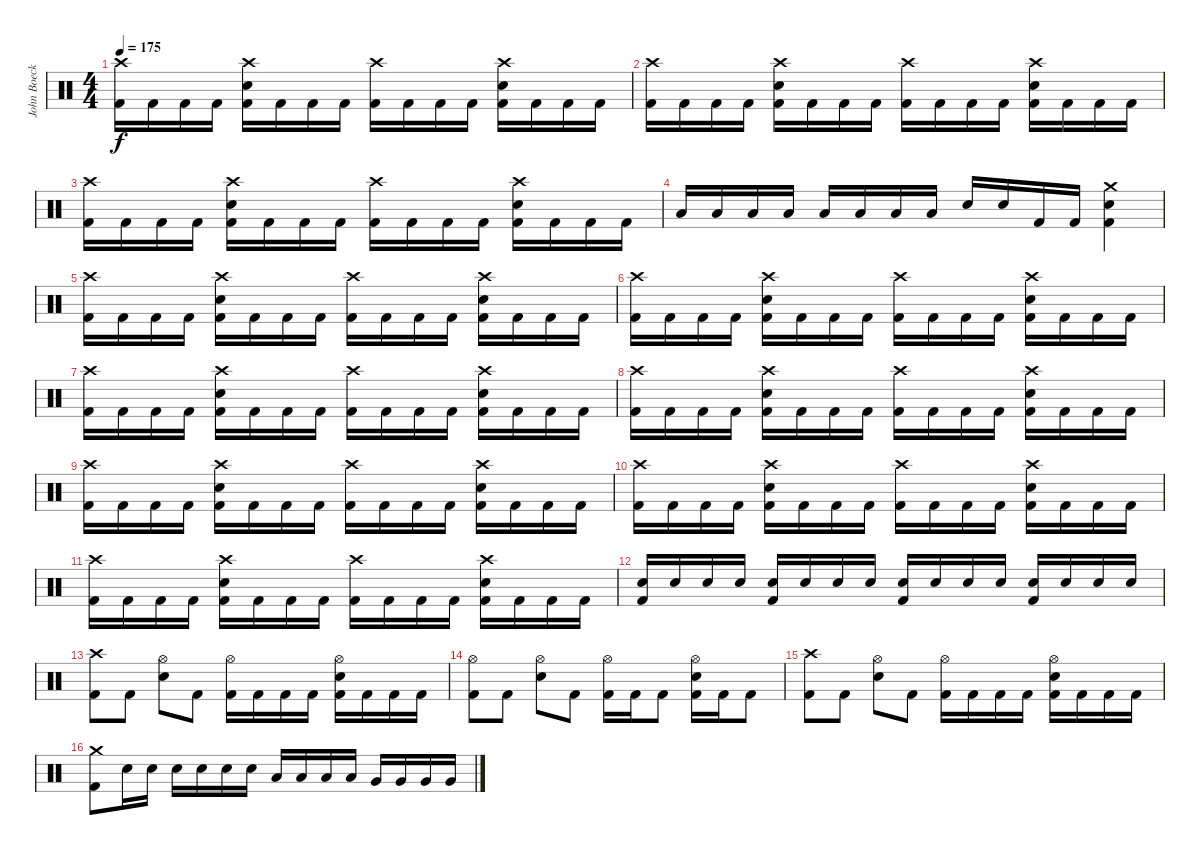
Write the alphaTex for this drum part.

\track ("John Boecklin (Drums)" "John Boeck") {instrument percussion}
\staff {score}
\articulation defaults
\ts (4 4)
\tempo 175
\clef neutral
\ks c
("Crash high (hit)" "Kick (hit) 2").16{dy f} "Kick (hit) 2".16 "Kick (hit) 2".16 "Kick (hit) 2".16 ("Crash high (hit)" "Snare (hit) 2" "Kick (hit) 2").16 "Kick (hit) 2".16 "Kick (hit) 2".16 "Kick (hit) 2".16 ("Crash high (hit)" "Kick (hit) 2").16 "Kick (hit) 2".16 "Kick (hit) 2".16 "Kick (hit) 2".16 ("Crash high (hit)" "Snare (hit) 2" "Kick (hit) 2").16 "Kick (hit) 2".16 "Kick (hit) 2".16 "Kick (hit) 2".16 |
("Crash high (hit)" "Kick (hit) 2").16 "Kick (hit) 2".16 "Kick (hit) 2".16 "Kick (hit) 2".16 ("Crash high (hit)" "Snare (hit) 2" "Kick (hit) 2").16 "Kick (hit) 2".16 "Kick (hit) 2".16 "Kick (hit) 2".16 ("Crash high (hit)" "Kick (hit) 2").16 "Kick (hit) 2".16 "Kick (hit) 2".16 "Kick (hit) 2".16 ("Crash high (hit)" "Snare (hit) 2" "Kick (hit) 2").16 "Kick (hit) 2".16 "Kick (hit) 2".16 "Kick (hit) 2".16 |
("Crash high (hit)" "Kick (hit) 2").16 "Kick (hit) 2".16 "Kick (hit) 2".16 "Kick (hit) 2".16 ("Crash high (hit)" "Snare (hit) 2" "Kick (hit) 2").16 "Kick (hit) 2".16 "Kick (hit) 2".16 "Kick (hit) 2".16 ("Crash high (hit)" "Kick (hit) 2").16 "Kick (hit) 2".16 "Kick (hit) 2".16 "Kick (hit) 2".16 ("Crash high (hit)" "Snare (hit) 2" "Kick (hit) 2").16 "Kick (hit) 2".16 "Kick (hit) 2".16 "Kick (hit) 2".16 |
"Low Tom (hit)".16 "Low Tom (hit)".16 "Low Tom (hit)".16 "Low Tom (hit)".16 "Low Tom (hit)".16 "Low Tom (hit)".16 "Low Tom (hit)".16 "Low Tom (hit)".16 "Snare (hit) 2".16 "Snare (hit) 2".16 "Kick (hit) 2".16 "Kick (hit) 2".16 ("Crash medium (hit)" "Kick (hit) 2" "Snare (hit) 2").4 |
("Crash high (hit)" "Kick (hit) 2").16 "Kick (hit) 2".16 "Kick (hit) 2".16 "Kick (hit) 2".16 ("Crash high (hit)" "Snare (hit) 2" "Kick (hit) 2").16 "Kick (hit) 2".16 "Kick (hit) 2".16 "Kick (hit) 2".16 ("Crash high (hit)" "Kick (hit) 2").16 "Kick (hit) 2".16 "Kick (hit) 2".16 "Kick (hit) 2".16 ("Crash high (hit)" "Snare (hit) 2" "Kick (hit) 2").16 "Kick (hit) 2".16 "Kick (hit) 2".16 "Kick (hit) 2".16 |
("Crash high (hit)" "Kick (hit) 2").16 "Kick (hit) 2".16 "Kick (hit) 2".16 "Kick (hit) 2".16 ("Crash high (hit)" "Snare (hit) 2" "Kick (hit) 2").16 "Kick (hit) 2".16 "Kick (hit) 2".16 "Kick (hit) 2".16 ("Crash high (hit)" "Kick (hit) 2").16 "Kick (hit) 2".16 "Kick (hit) 2".16 "Kick (hit) 2".16 ("Crash high (hit)" "Snare (hit) 2" "Kick (hit) 2").16 "Kick (hit) 2".16 "Kick (hit) 2".16 "Kick (hit) 2".16 |
("Crash high (hit)" "Kick (hit) 2").16 "Kick (hit) 2".16 "Kick (hit) 2".16 "Kick (hit) 2".16 ("Crash high (hit)" "Snare (hit) 2" "Kick (hit) 2").16 "Kick (hit) 2".16 "Kick (hit) 2".16 "Kick (hit) 2".16 ("Crash high (hit)" "Kick (hit) 2").16 "Kick (hit) 2".16 "Kick (hit) 2".16 "Kick (hit) 2".16 ("Crash high (hit)" "Snare (hit) 2" "Kick (hit) 2").16 "Kick (hit) 2".16 "Kick (hit) 2".16 "Kick (hit) 2".16 |
("Crash high (hit)" "Kick (hit) 2").16 "Kick (hit) 2".16 "Kick (hit) 2".16 "Kick (hit) 2".16 ("Crash high (hit)" "Snare (hit) 2" "Kick (hit) 2").16 "Kick (hit) 2".16 "Kick (hit) 2".16 "Kick (hit) 2".16 ("Crash high (hit)" "Kick (hit) 2").16 "Kick (hit) 2".16 "Kick (hit) 2".16 "Kick (hit) 2".16 ("Crash high (hit)" "Snare (hit) 2" "Kick (hit) 2").16 "Kick (hit) 2".16 "Kick (hit) 2".16 "Kick (hit) 2".16 |
("Crash high (hit)" "Kick (hit) 2").16 "Kick (hit) 2".16 "Kick (hit) 2".16 "Kick (hit) 2".16 ("Crash high (hit)" "Snare (hit) 2" "Kick (hit) 2").16 "Kick (hit) 2".16 "Kick (hit) 2".16 "Kick (hit) 2".16 ("Crash high (hit)" "Kick (hit) 2").16 "Kick (hit) 2".16 "Kick (hit) 2".16 "Kick (hit) 2".16 ("Crash high (hit)" "Snare (hit) 2" "Kick (hit) 2").16 "Kick (hit) 2".16 "Kick (hit) 2".16 "Kick (hit) 2".16 |
("Crash high (hit)" "Kick (hit) 2").16 "Kick (hit) 2".16 "Kick (hit) 2".16 "Kick (hit) 2".16 ("Crash high (hit)" "Snare (hit) 2" "Kick (hit) 2").16 "Kick (hit) 2".16 "Kick (hit) 2".16 "Kick (hit) 2".16 ("Crash high (hit)" "Kick (hit) 2").16 "Kick (hit) 2".16 "Kick (hit) 2".16 "Kick (hit) 2".16 ("Crash high (hit)" "Snare (hit) 2" "Kick (hit) 2").16 "Kick (hit) 2".16 "Kick (hit) 2".16 "Kick (hit) 2".16 |
("Crash high (hit)" "Kick (hit) 2").16 "Kick (hit) 2".16 "Kick (hit) 2".16 "Kick (hit) 2".16 ("Crash high (hit)" "Snare (hit) 2" "Kick (hit) 2").16 "Kick (hit) 2".16 "Kick (hit) 2".16 "Kick (hit) 2".16 ("Crash high (hit)" "Kick (hit) 2").16 "Kick (hit) 2".16 "Kick (hit) 2".16 "Kick (hit) 2".16 ("Crash high (hit)" "Snare (hit) 2" "Kick (hit) 2").16 "Kick (hit) 2".16 "Kick (hit) 2".16 "Kick (hit) 2".16 |
("Kick (hit) 2" "Snare (hit) 2").16 "Snare (hit) 2".16 "Snare (hit) 2".16 "Snare (hit) 2".16 ("Kick (hit) 2" "Snare (hit) 2").16 "Snare (hit) 2".16 "Snare (hit) 2".16 "Snare (hit) 2".16 ("Kick (hit) 2" "Snare (hit) 2").16 "Snare (hit) 2".16 "Snare (hit) 2".16 "Snare (hit) 2".16 ("Kick (hit) 2" "Snare (hit) 2").16 "Snare (hit) 2".16 "Snare (hit) 2".16 "Snare (hit) 2".16 |
("Crash high (hit)" "Kick (hit) 2").8 "Kick (hit) 2".8 ("Hi-Hat (open)" "Snare (hit) 2").8 "Kick (hit) 2".8 ("Hi-Hat (open)" "Kick (hit) 2").16 "Kick (hit) 2".16 "Kick (hit) 2".16 "Kick (hit) 2".16 ("Hi-Hat (open)" "Snare (hit) 2" "Kick (hit) 2").16 "Kick (hit) 2".16 "Kick (hit) 2".16 "Kick (hit) 2".16 |
("Hi-Hat (open)" "Kick (hit) 2").8 "Kick (hit) 2".8 ("Hi-Hat (open)" "Snare (hit) 2").8 "Kick (hit) 2".8 ("Hi-Hat (open)" "Kick (hit) 2").16 "Kick (hit) 2".16 "Kick (hit) 2".8 ("Hi-Hat (open)" "Snare (hit) 2" "Kick (hit) 2").16 "Kick (hit) 2".16 "Kick (hit) 2".8 |
("Crash high (hit)" "Kick (hit) 2").8 "Kick (hit) 2".8 ("Hi-Hat (open)" "Snare (hit) 2").8 "Kick (hit) 2".8 ("Hi-Hat (open)" "Kick (hit) 2").16 "Kick (hit) 2".16 "Kick (hit) 2".16 "Kick (hit) 2".16 ("Hi-Hat (open)" "Snare (hit) 2" "Kick (hit) 2").16 "Kick (hit) 2".16 "Kick (hit) 2".16 "Kick (hit) 2".16 |
("Crash medium (hit)" "Kick (hit) 2").8 "Snare (hit) 2".16 "Snare (hit) 2".16 "Snare (hit) 2".16 "Snare (hit) 2".16 "Snare (hit) 2".16 "Snare (hit) 2".16 "Low Tom (hit)".16 "Low Tom (hit)".16 "Low Tom (hit)".16 "Low Tom (hit)".16 "Very Low Tom (hit)".16 "Very Low Tom (hit)".16 "Very Low Tom (hit)".16 "Very Low Tom (hit)".16
